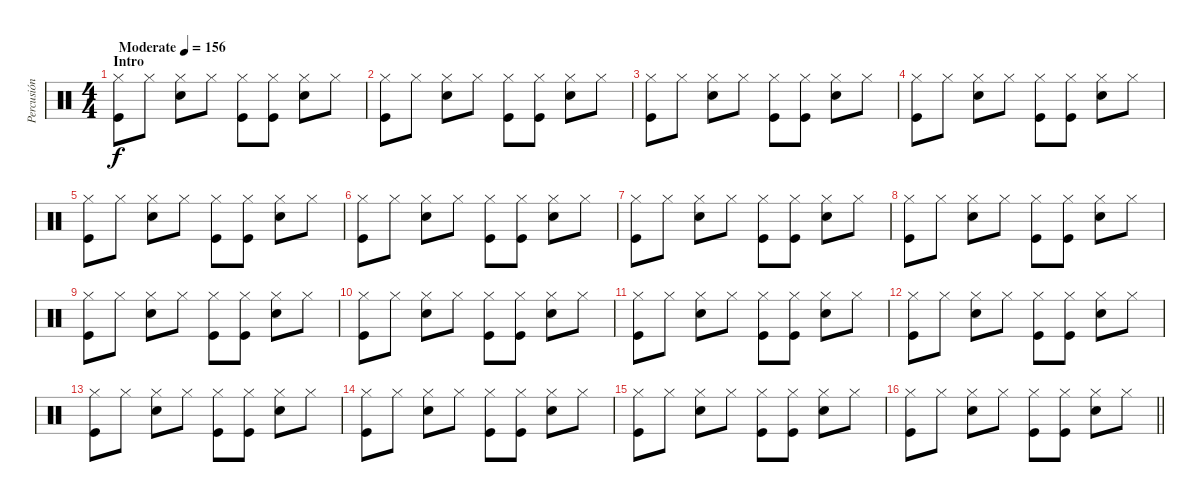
\track ("Percusión" "Percusión") {instrument percussion}
\staff {score}
\articulation defaults
\ts (4 4)
\section ("" "Intro")
\tempo (156 "Moderate")
\clef neutral
\ks c
("Hi-Hat (closed)" "Kick (hit)").8{dy f} "Hi-Hat (closed)".8 ("Hi-Hat (closed)" "Electric Snare (hit)").8 "Hi-Hat (closed)".8 ("Hi-Hat (closed)" "Kick (hit)").8 ("Hi-Hat (closed)" "Kick (hit)").8 ("Hi-Hat (closed)" "Electric Snare (hit)").8 "Hi-Hat (closed)".8 |
("Hi-Hat (closed)" "Kick (hit)").8 "Hi-Hat (closed)".8 ("Hi-Hat (closed)" "Electric Snare (hit)").8 "Hi-Hat (closed)".8 ("Hi-Hat (closed)" "Kick (hit)").8 ("Hi-Hat (closed)" "Kick (hit)").8 ("Hi-Hat (closed)" "Electric Snare (hit)").8 "Hi-Hat (closed)".8 |
("Hi-Hat (closed)" "Kick (hit)").8 "Hi-Hat (closed)".8 ("Hi-Hat (closed)" "Electric Snare (hit)").8 "Hi-Hat (closed)".8 ("Hi-Hat (closed)" "Kick (hit)").8 ("Hi-Hat (closed)" "Kick (hit)").8 ("Hi-Hat (closed)" "Electric Snare (hit)").8 "Hi-Hat (closed)".8 |
("Hi-Hat (closed)" "Kick (hit)").8 "Hi-Hat (closed)".8 ("Hi-Hat (closed)" "Electric Snare (hit)").8 "Hi-Hat (closed)".8 ("Hi-Hat (closed)" "Kick (hit)").8 ("Hi-Hat (closed)" "Kick (hit)").8 ("Hi-Hat (closed)" "Electric Snare (hit)").8 "Hi-Hat (closed)".8 |
("Hi-Hat (closed)" "Kick (hit)").8 "Hi-Hat (closed)".8 ("Hi-Hat (closed)" "Electric Snare (hit)").8 "Hi-Hat (closed)".8 ("Hi-Hat (closed)" "Kick (hit)").8 ("Hi-Hat (closed)" "Kick (hit)").8 ("Hi-Hat (closed)" "Electric Snare (hit)").8 "Hi-Hat (closed)".8 |
("Hi-Hat (closed)" "Kick (hit)").8 "Hi-Hat (closed)".8 ("Hi-Hat (closed)" "Electric Snare (hit)").8 "Hi-Hat (closed)".8 ("Hi-Hat (closed)" "Kick (hit)").8 ("Hi-Hat (closed)" "Kick (hit)").8 ("Hi-Hat (closed)" "Electric Snare (hit)").8 "Hi-Hat (closed)".8 |
("Hi-Hat (closed)" "Kick (hit)").8 "Hi-Hat (closed)".8 ("Hi-Hat (closed)" "Electric Snare (hit)").8 "Hi-Hat (closed)".8 ("Hi-Hat (closed)" "Kick (hit)").8 ("Hi-Hat (closed)" "Kick (hit)").8 ("Hi-Hat (closed)" "Electric Snare (hit)").8 "Hi-Hat (closed)".8 |
("Hi-Hat (closed)" "Kick (hit)").8 "Hi-Hat (closed)".8 ("Hi-Hat (closed)" "Electric Snare (hit)").8 "Hi-Hat (closed)".8 ("Hi-Hat (closed)" "Kick (hit)").8 ("Hi-Hat (closed)" "Kick (hit)").8 ("Hi-Hat (closed)" "Electric Snare (hit)").8 "Hi-Hat (closed)".8 |
("Hi-Hat (closed)" "Kick (hit)").8 "Hi-Hat (closed)".8 ("Hi-Hat (closed)" "Electric Snare (hit)").8 "Hi-Hat (closed)".8 ("Hi-Hat (closed)" "Kick (hit)").8 ("Hi-Hat (closed)" "Kick (hit)").8 ("Hi-Hat (closed)" "Electric Snare (hit)").8 "Hi-Hat (closed)".8 |
("Hi-Hat (closed)" "Kick (hit)").8 "Hi-Hat (closed)".8 ("Hi-Hat (closed)" "Electric Snare (hit)").8 "Hi-Hat (closed)".8 ("Hi-Hat (closed)" "Kick (hit)").8 ("Hi-Hat (closed)" "Kick (hit)").8 ("Hi-Hat (closed)" "Electric Snare (hit)").8 "Hi-Hat (closed)".8 |
("Hi-Hat (closed)" "Kick (hit)").8 "Hi-Hat (closed)".8 ("Hi-Hat (closed)" "Electric Snare (hit)").8 "Hi-Hat (closed)".8 ("Hi-Hat (closed)" "Kick (hit)").8 ("Hi-Hat (closed)" "Kick (hit)").8 ("Hi-Hat (closed)" "Electric Snare (hit)").8 "Hi-Hat (closed)".8 |
("Hi-Hat (closed)" "Kick (hit)").8 "Hi-Hat (closed)".8 ("Hi-Hat (closed)" "Electric Snare (hit)").8 "Hi-Hat (closed)".8 ("Hi-Hat (closed)" "Kick (hit)").8 ("Hi-Hat (closed)" "Kick (hit)").8 ("Hi-Hat (closed)" "Electric Snare (hit)").8 "Hi-Hat (closed)".8 |
("Hi-Hat (closed)" "Kick (hit)").8 "Hi-Hat (closed)".8 ("Hi-Hat (closed)" "Electric Snare (hit)").8 "Hi-Hat (closed)".8 ("Hi-Hat (closed)" "Kick (hit)").8 ("Hi-Hat (closed)" "Kick (hit)").8 ("Hi-Hat (closed)" "Electric Snare (hit)").8 "Hi-Hat (closed)".8 |
("Hi-Hat (closed)" "Kick (hit)").8 "Hi-Hat (closed)".8 ("Hi-Hat (closed)" "Electric Snare (hit)").8 "Hi-Hat (closed)".8 ("Hi-Hat (closed)" "Kick (hit)").8 ("Hi-Hat (closed)" "Kick (hit)").8 ("Hi-Hat (closed)" "Electric Snare (hit)").8 "Hi-Hat (closed)".8 |
("Hi-Hat (closed)" "Kick (hit)").8 "Hi-Hat (closed)".8 ("Hi-Hat (closed)" "Electric Snare (hit)").8 "Hi-Hat (closed)".8 ("Hi-Hat (closed)" "Kick (hit)").8 ("Hi-Hat (closed)" "Kick (hit)").8 ("Hi-Hat (closed)" "Electric Snare (hit)").8 "Hi-Hat (closed)".8 |
\barLineRight lightlight
("Hi-Hat (closed)" "Kick (hit)").8 "Hi-Hat (closed)".8 ("Hi-Hat (closed)" "Electric Snare (hit)").8 "Hi-Hat (closed)".8 ("Hi-Hat (closed)" "Kick (hit)").8 ("Hi-Hat (closed)" "Kick (hit)").8 ("Hi-Hat (closed)" "Electric Snare (hit)").8 "Hi-Hat (closed)".8
